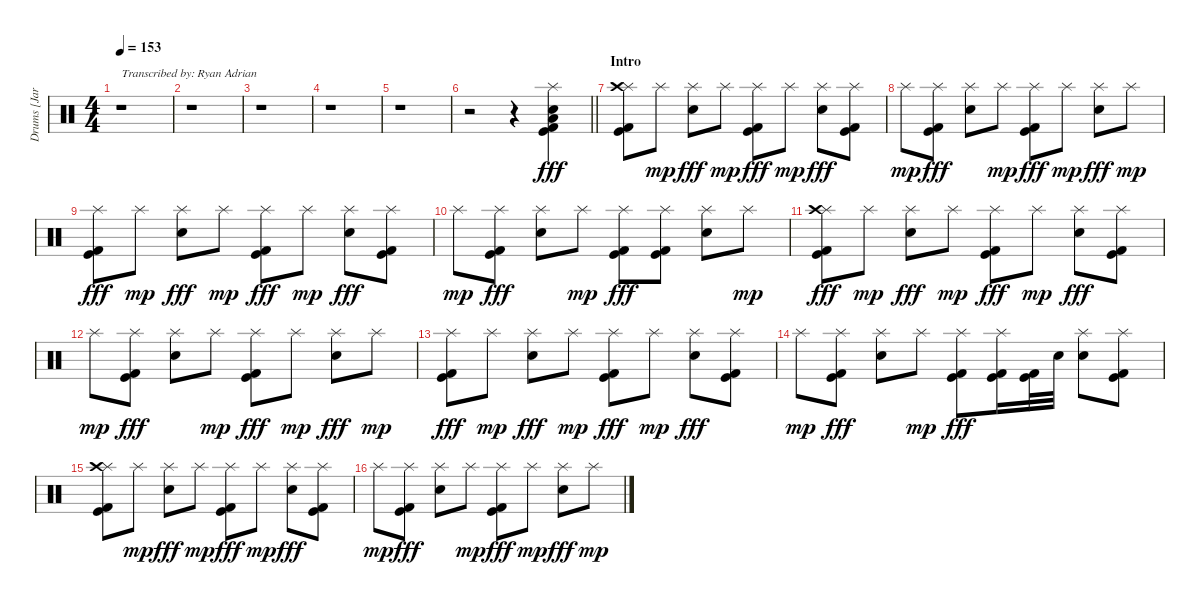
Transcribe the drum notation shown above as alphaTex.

\track ("Drums [Jari]" "Drums [Jar") {instrument percussion}
\staff {score}
\articulation defaults
\ts (4 4)
\tempo 153
\clef neutral
\ks c
r.1{txt "Transcribed by: Ryan Adrian" dy fff} |
r.1 |
r.1 |
r.1 |
r.1 |
\barLineRight lightlight
r.2 r.4 ("Splash (hit)" "Low Tom (hit)" "Snare (hit) 2" "Kick (hit) 2" "Kick (hit)").4 |
\section ("" "Intro")
("Kick (hit) 2" "Splash (hit)" "Crash high (hit)" "Kick (hit)").8 "Splash (hit)".8{dy mp} ("Splash (hit)" "Electric Snare (hit)").8{dy fff} "Splash (hit)".8{dy mp} ("Kick (hit) 2" "Splash (hit)" "Kick (hit)").8{dy fff} "Splash (hit)".8{dy mp} ("Splash (hit)" "Electric Snare (hit)").8{dy fff} ("Kick (hit) 2" "Splash (hit)" "Kick (hit)").8 |
"Splash (hit)".8{dy mp} ("Kick (hit) 2" "Splash (hit)" "Kick (hit)").8{dy fff} ("Splash (hit)" "Electric Snare (hit)").8 "Splash (hit)".8{dy mp} ("Kick (hit) 2" "Splash (hit)" "Kick (hit)").8{dy fff} "Splash (hit)".8{dy mp} ("Splash (hit)" "Electric Snare (hit)").8{dy fff} "Splash (hit)".8{dy mp} |
("Kick (hit) 2" "Splash (hit)" "Kick (hit)").8{dy fff} "Splash (hit)".8{dy mp} ("Splash (hit)" "Electric Snare (hit)").8{dy fff} "Splash (hit)".8{dy mp} ("Kick (hit) 2" "Splash (hit)" "Kick (hit)").8{dy fff} "Splash (hit)".8{dy mp} ("Splash (hit)" "Electric Snare (hit)").8{dy fff} ("Kick (hit) 2" "Splash (hit)" "Kick (hit)").8 |
"Splash (hit)".8{dy mp} ("Kick (hit) 2" "Splash (hit)" "Kick (hit)").8{dy fff} ("Splash (hit)" "Electric Snare (hit)").8 "Splash (hit)".8{dy mp} ("Kick (hit) 2" "Splash (hit)" "Kick (hit)").8{dy fff} ("Kick (hit) 2" "Splash (hit)" "Kick (hit)").8 ("Splash (hit)" "Electric Snare (hit)").8 "Splash (hit)".8{dy mp} |
("Kick (hit) 2" "Splash (hit)" "Crash high (hit)" "Kick (hit)").8{dy fff} "Splash (hit)".8{dy mp} ("Splash (hit)" "Electric Snare (hit)").8{dy fff} "Splash (hit)".8{dy mp} ("Kick (hit) 2" "Splash (hit)" "Kick (hit)").8{dy fff} "Splash (hit)".8{dy mp} ("Splash (hit)" "Electric Snare (hit)").8{dy fff} ("Kick (hit) 2" "Splash (hit)" "Kick (hit)").8 |
"Splash (hit)".8{dy mp} ("Kick (hit) 2" "Splash (hit)" "Kick (hit)").8{dy fff} ("Splash (hit)" "Electric Snare (hit)").8 "Splash (hit)".8{dy mp} ("Kick (hit) 2" "Splash (hit)" "Kick (hit)").8{dy fff} "Splash (hit)".8{dy mp} ("Splash (hit)" "Electric Snare (hit)").8{dy fff} "Splash (hit)".8{dy mp} |
("Kick (hit) 2" "Splash (hit)" "Kick (hit)").8{dy fff} "Splash (hit)".8{dy mp} ("Splash (hit)" "Electric Snare (hit)").8{dy fff} "Splash (hit)".8{dy mp} ("Kick (hit) 2" "Splash (hit)" "Kick (hit)").8{dy fff} "Splash (hit)".8{dy mp} ("Splash (hit)" "Electric Snare (hit)").8{dy fff} ("Kick (hit) 2" "Splash (hit)" "Kick (hit)").8 |
"Splash (hit)".8{dy mp} ("Kick (hit) 2" "Splash (hit)" "Kick (hit)").8{dy fff} ("Splash (hit)" "Electric Snare (hit)").8 "Splash (hit)".8{dy mp} ("Kick (hit) 2" "Splash (hit)" "Kick (hit)").8{dy fff} ("Kick (hit) 2" "Splash (hit)" "Kick (hit)").16 ("Kick (hit) 2" "Kick (hit)").32 "Electric Snare (hit)".32 ("Splash (hit)" "Electric Snare (hit)").8 ("Kick (hit) 2" "Splash (hit)" "Kick (hit)").8 |
("Kick (hit) 2" "Splash (hit)" "Crash high (hit)" "Kick (hit)").8 "Splash (hit)".8{dy mp} ("Splash (hit)" "Electric Snare (hit)").8{dy fff} "Splash (hit)".8{dy mp} ("Kick (hit) 2" "Splash (hit)" "Kick (hit)").8{dy fff} "Splash (hit)".8{dy mp} ("Splash (hit)" "Electric Snare (hit)").8{dy fff} ("Kick (hit) 2" "Splash (hit)" "Kick (hit)").8 |
"Splash (hit)".8{dy mp} ("Kick (hit) 2" "Splash (hit)" "Kick (hit)").8{dy fff} ("Splash (hit)" "Electric Snare (hit)").8 "Splash (hit)".8{dy mp} ("Kick (hit) 2" "Splash (hit)" "Kick (hit)").8{dy fff} "Splash (hit)".8{dy mp} ("Splash (hit)" "Electric Snare (hit)").8{dy fff} "Splash (hit)".8{dy mp}
